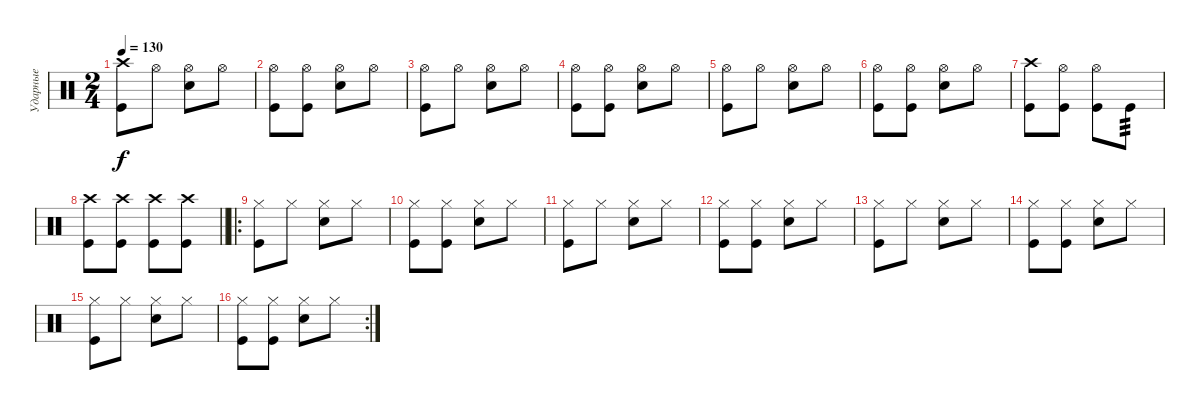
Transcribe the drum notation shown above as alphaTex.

\track ("Ударные" "Ударные") {instrument percussion}
\staff {score}
\articulation defaults
\ts (2 4)
\tempo 130
\clef neutral
\ks c
("Crash high (hit)" "Kick (hit)").8{dy f} "Hi-Hat (open)".8 ("Hi-Hat (open)" "Snare (hit) 2").8 "Hi-Hat (open)".8 |
("Hi-Hat (open)" "Kick (hit)").8 ("Hi-Hat (open)" "Kick (hit)").8 ("Hi-Hat (open)" "Snare (hit) 2").8 "Hi-Hat (open)".8 |
("Hi-Hat (open)" "Kick (hit)").8 "Hi-Hat (open)".8 ("Hi-Hat (open)" "Snare (hit) 2").8 "Hi-Hat (open)".8 |
("Hi-Hat (open)" "Kick (hit)").8 ("Hi-Hat (open)" "Kick (hit)").8 ("Hi-Hat (open)" "Snare (hit) 2").8 "Hi-Hat (open)".8 |
("Hi-Hat (open)" "Kick (hit)").8 "Hi-Hat (open)".8 ("Hi-Hat (open)" "Snare (hit) 2").8 "Hi-Hat (open)".8 |
("Hi-Hat (open)" "Kick (hit)").8 ("Hi-Hat (open)" "Kick (hit)").8 ("Hi-Hat (open)" "Snare (hit) 2").8 "Hi-Hat (open)".8 |
("Crash high (hit)" "Kick (hit)").8 ("Hi-Hat (open)" "Kick (hit)").8 ("Hi-Hat (open)" "Kick (hit)").8 "Kick (hit)".8{tp 3} |
\barLineRight lightlight
("Crash high (hit)" "Kick (hit)").8 ("Crash high (hit)" "Kick (hit)").8 ("Crash high (hit)" "Kick (hit)").8 ("Crash high (hit)" "Kick (hit)").8 |
\ro
("Hi-Hat (closed)" "Kick (hit)").8 "Hi-Hat (closed)".8 ("Hi-Hat (closed)" "Snare (hit) 2").8 "Hi-Hat (closed)".8 |
("Hi-Hat (closed)" "Kick (hit)").8 ("Hi-Hat (closed)" "Kick (hit)").8 ("Hi-Hat (closed)" "Snare (hit) 2").8 "Hi-Hat (closed)".8 |
("Hi-Hat (closed)" "Kick (hit)").8 "Hi-Hat (closed)".8 ("Hi-Hat (closed)" "Snare (hit) 2").8 "Hi-Hat (closed)".8 |
("Hi-Hat (closed)" "Kick (hit)").8 ("Hi-Hat (closed)" "Kick (hit)").8 ("Hi-Hat (closed)" "Snare (hit) 2").8 "Hi-Hat (closed)".8 |
("Hi-Hat (closed)" "Kick (hit)").8 "Hi-Hat (closed)".8 ("Hi-Hat (closed)" "Snare (hit) 2").8 "Hi-Hat (closed)".8 |
("Hi-Hat (closed)" "Kick (hit)").8 ("Hi-Hat (closed)" "Kick (hit)").8 ("Hi-Hat (closed)" "Snare (hit) 2").8 "Hi-Hat (closed)".8 |
("Hi-Hat (closed)" "Kick (hit)").8 "Hi-Hat (closed)".8 ("Hi-Hat (closed)" "Snare (hit) 2").8 "Hi-Hat (closed)".8 |
\rc 2
("Hi-Hat (closed)" "Kick (hit)").8 ("Hi-Hat (closed)" "Kick (hit)").8 ("Hi-Hat (closed)" "Snare (hit) 2").8 "Hi-Hat (closed)".8
